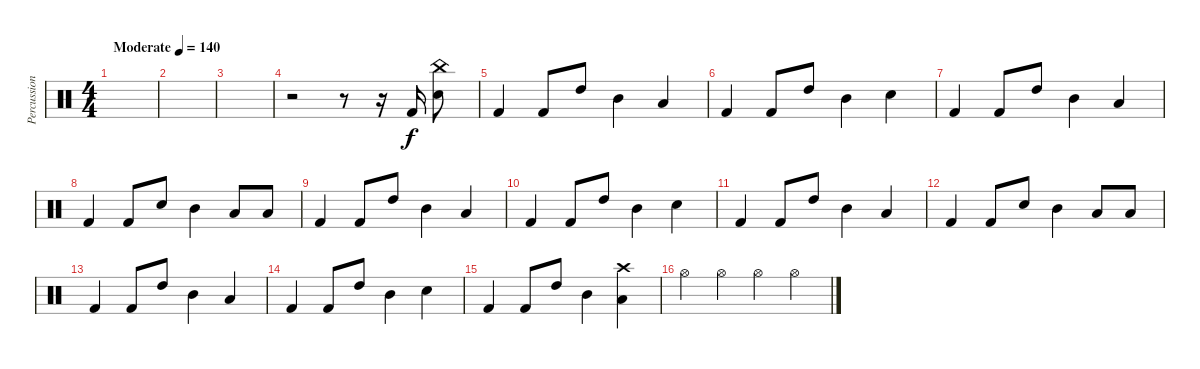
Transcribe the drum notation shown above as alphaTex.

\track ("Percussion" "Percussion") {instrument percussion}
\staff {score}
\articulation defaults
\ts (4 4)
\tempo (140 "Moderate")
\clef neutral
\ks c
|
|
|
r.2 r.8 r.16 "Kick (hit) 2".16 ("Snare (hit) 2" "China (hit)").8 |
"Kick (hit) 2".4 "Kick (hit) 2".8 "High Tom (hit)".8 "Mid Tom (hit)".4 "Low Tom (hit)".4 |
"Kick (hit) 2".4 "Kick (hit) 2".8 "High Tom (hit)".8 "Mid Tom (hit)".4 "Snare (hit) 2".4 |
"Kick (hit) 2".4 "Kick (hit) 2".8 "High Tom (hit)".8 "Mid Tom (hit)".4 "Low Tom (hit)".4 |
"Kick (hit) 2".4 "Kick (hit) 2".8 "Snare (hit) 2".8 "Mid Tom (hit)".4 "Low Tom (hit)".8 "Low Tom (hit)".8 |
"Kick (hit) 2".4 "Kick (hit) 2".8 "High Tom (hit)".8 "Mid Tom (hit)".4 "Low Tom (hit)".4 |
"Kick (hit) 2".4 "Kick (hit) 2".8 "High Tom (hit)".8 "Mid Tom (hit)".4 "Snare (hit) 2".4 |
"Kick (hit) 2".4 "Kick (hit) 2".8 "High Tom (hit)".8 "Mid Tom (hit)".4 "Low Tom (hit)".4 |
"Kick (hit) 2".4 "Kick (hit) 2".8 "Snare (hit) 2".8 "Mid Tom (hit)".4 "Low Tom (hit)".8 "Low Tom (hit)".8 |
"Kick (hit) 2".4 "Kick (hit) 2".8 "High Tom (hit)".8 "Mid Tom (hit)".4 "Low Tom (hit)".4 |
"Kick (hit) 2".4 "Kick (hit) 2".8 "High Tom (hit)".8 "Mid Tom (hit)".4 "Snare (hit) 2".4 |
"Kick (hit) 2".4 "Kick (hit) 2".8 "High Tom (hit)".8 "Mid Tom (hit)".4 ("Crash high (hit)" "Low Tom (hit)").4 |
"Hi-Hat (open)".4 "Hi-Hat (open)".4 "Hi-Hat (open)".4 "Hi-Hat (open)".4
